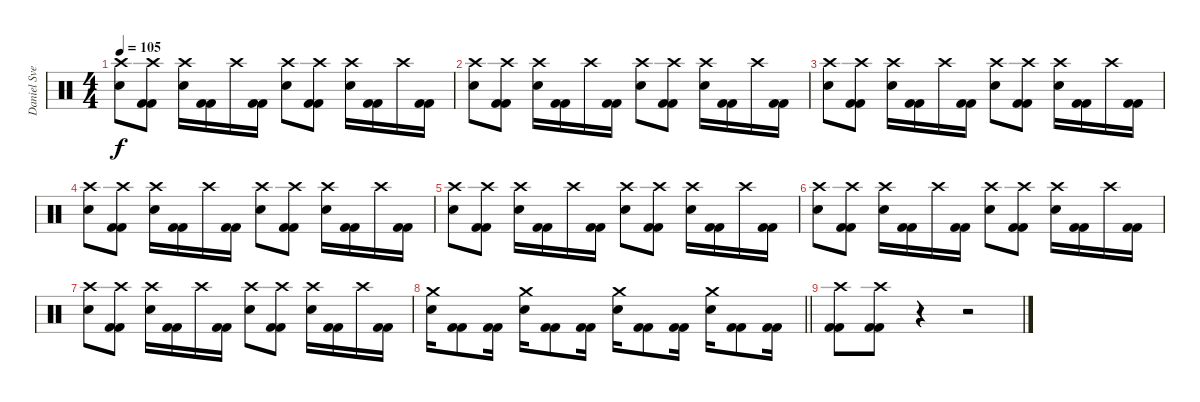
\track ("Daniel Svensson" "Daniel Sve") {instrument percussion}
\staff {score}
\articulation defaults
\ts (4 4)
\tempo 105
\clef neutral
\ks c
("Crash high (hit)" "Electric Snare (hit)").8{dy f} ("Crash high (hit)" "Kick (hit) 2" "Kick (hit) 2").8 ("Crash high (hit)" "Electric Snare (hit)").16 ("Kick (hit) 2" "Kick (hit) 2").16 "Crash high (hit)".16 ("Kick (hit) 2" "Kick (hit) 2").16 ("Crash high (hit)" "Electric Snare (hit)").8 ("Crash high (hit)" "Kick (hit) 2" "Kick (hit) 2").8 ("Crash high (hit)" "Electric Snare (hit)").16 ("Kick (hit) 2" "Kick (hit) 2").16 "Crash high (hit)".16 ("Kick (hit) 2" "Kick (hit) 2").16 |
("Crash high (hit)" "Electric Snare (hit)").8 ("Crash high (hit)" "Kick (hit) 2" "Kick (hit) 2").8 ("Crash high (hit)" "Electric Snare (hit)").16 ("Kick (hit) 2" "Kick (hit) 2").16 "Crash high (hit)".16 ("Kick (hit) 2" "Kick (hit) 2").16 ("Crash high (hit)" "Electric Snare (hit)").8 ("Crash high (hit)" "Kick (hit) 2" "Kick (hit) 2").8 ("Crash high (hit)" "Electric Snare (hit)").16 ("Kick (hit) 2" "Kick (hit) 2").16 "Crash high (hit)".16 ("Kick (hit) 2" "Kick (hit) 2").16 |
("Crash high (hit)" "Electric Snare (hit)").8 ("Crash high (hit)" "Kick (hit) 2" "Kick (hit) 2").8 ("Crash high (hit)" "Electric Snare (hit)").16 ("Kick (hit) 2" "Kick (hit) 2").16 "Crash high (hit)".16 ("Kick (hit) 2" "Kick (hit) 2").16 ("Crash high (hit)" "Electric Snare (hit)").8 ("Crash high (hit)" "Kick (hit) 2" "Kick (hit) 2").8 ("Crash high (hit)" "Electric Snare (hit)").16 ("Kick (hit) 2" "Kick (hit) 2").16 "Crash high (hit)".16 ("Kick (hit) 2" "Kick (hit) 2").16 |
("Crash high (hit)" "Electric Snare (hit)").8 ("Crash high (hit)" "Kick (hit) 2" "Kick (hit) 2").8 ("Crash high (hit)" "Electric Snare (hit)").16 ("Kick (hit) 2" "Kick (hit) 2").16 "Crash high (hit)".16 ("Kick (hit) 2" "Kick (hit) 2").16 ("Crash high (hit)" "Electric Snare (hit)").8 ("Crash high (hit)" "Kick (hit) 2" "Kick (hit) 2").8 ("Crash high (hit)" "Electric Snare (hit)").16 ("Kick (hit) 2" "Kick (hit) 2").16 "Crash high (hit)".16 ("Kick (hit) 2" "Kick (hit) 2").16 |
("Crash high (hit)" "Electric Snare (hit)").8 ("Crash high (hit)" "Kick (hit) 2" "Kick (hit) 2").8 ("Crash high (hit)" "Electric Snare (hit)").16 ("Kick (hit) 2" "Kick (hit) 2").16 "Crash high (hit)".16 ("Kick (hit) 2" "Kick (hit) 2").16 ("Crash high (hit)" "Electric Snare (hit)").8 ("Crash high (hit)" "Kick (hit) 2" "Kick (hit) 2").8 ("Crash high (hit)" "Electric Snare (hit)").16 ("Kick (hit) 2" "Kick (hit) 2").16 "Crash high (hit)".16 ("Kick (hit) 2" "Kick (hit) 2").16 |
("Crash high (hit)" "Electric Snare (hit)").8 ("Crash high (hit)" "Kick (hit) 2" "Kick (hit) 2").8 ("Crash high (hit)" "Electric Snare (hit)").16 ("Kick (hit) 2" "Kick (hit) 2").16 "Crash high (hit)".16 ("Kick (hit) 2" "Kick (hit) 2").16 ("Crash high (hit)" "Electric Snare (hit)").8 ("Crash high (hit)" "Kick (hit) 2" "Kick (hit) 2").8 ("Crash high (hit)" "Electric Snare (hit)").16 ("Kick (hit) 2" "Kick (hit) 2").16 "Crash high (hit)".16 ("Kick (hit) 2" "Kick (hit) 2").16 |
("Crash high (hit)" "Electric Snare (hit)").8 ("Crash high (hit)" "Kick (hit) 2" "Kick (hit) 2").8 ("Crash high (hit)" "Electric Snare (hit)").16 ("Kick (hit) 2" "Kick (hit) 2").16 "Crash high (hit)".16 ("Kick (hit) 2" "Kick (hit) 2").16 ("Crash high (hit)" "Electric Snare (hit)").8 ("Crash high (hit)" "Kick (hit) 2" "Kick (hit) 2").8 ("Crash high (hit)" "Electric Snare (hit)").16 ("Kick (hit) 2" "Kick (hit) 2").16 "Crash high (hit)".16 ("Kick (hit) 2" "Kick (hit) 2").16 |
\barLineRight lightlight
("Crash medium (hit)" "Electric Snare (hit)").16 ("Kick (hit) 2" "Kick (hit) 2").8 ("Kick (hit) 2" "Kick (hit) 2").16 ("Crash medium (hit)" "Electric Snare (hit)").16 ("Kick (hit) 2" "Kick (hit) 2").8 ("Kick (hit) 2" "Kick (hit) 2").16 ("Crash medium (hit)" "Electric Snare (hit)").16 ("Kick (hit) 2" "Kick (hit) 2").8 ("Kick (hit) 2" "Kick (hit) 2").16 ("Crash medium (hit)" "Electric Snare (hit)").16 ("Kick (hit) 2" "Kick (hit) 2").8 ("Kick (hit) 2" "Kick (hit) 2").16 |
("Crash high (hit)" "Kick (hit) 2" "Kick (hit) 2").8 ("Crash high (hit)" "Kick (hit) 2" "Kick (hit) 2").8 r.4 r.2
